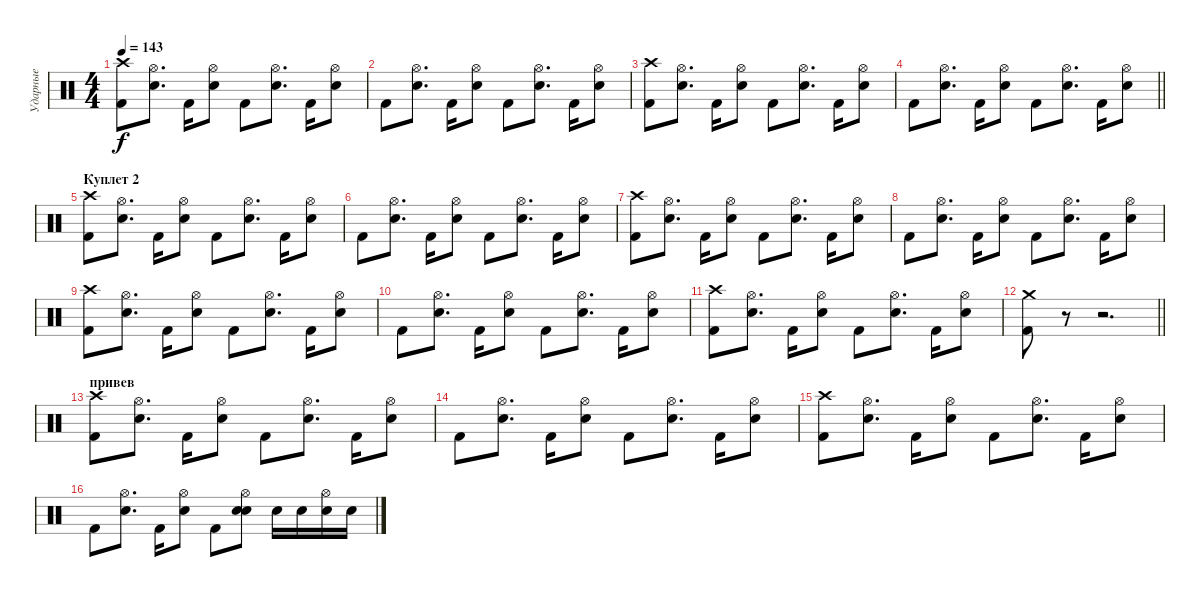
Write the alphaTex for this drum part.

\track ("Ударные" "Ударные") {instrument percussion}
\staff {score}
\articulation defaults
\ts (4 4)
\tempo 143
\clef neutral
\ks c
("Crash high (hit)" "Kick (hit) 2").8{dy f} ("Hi-Hat (open)" "Electric Snare (hit)").8{d} "Kick (hit) 2".16 ("Hi-Hat (open)" "Electric Snare (hit)").8 "Kick (hit) 2".8 ("Hi-Hat (open)" "Electric Snare (hit)").8{d} "Kick (hit) 2".16 ("Hi-Hat (open)" "Electric Snare (hit)").8 |
"Kick (hit) 2".8 ("Hi-Hat (open)" "Electric Snare (hit)").8{d} "Kick (hit) 2".16 ("Hi-Hat (open)" "Electric Snare (hit)").8 "Kick (hit) 2".8 ("Hi-Hat (open)" "Electric Snare (hit)").8{d} "Kick (hit) 2".16 ("Hi-Hat (open)" "Electric Snare (hit)").8 |
("Crash high (hit)" "Kick (hit) 2").8 ("Hi-Hat (open)" "Electric Snare (hit)").8{d} "Kick (hit) 2".16 ("Hi-Hat (open)" "Electric Snare (hit)").8 "Kick (hit) 2".8 ("Hi-Hat (open)" "Electric Snare (hit)").8{d} "Kick (hit) 2".16 ("Hi-Hat (open)" "Electric Snare (hit)").8 |
\barLineRight lightlight "Kick (hit) 2".8
("Hi-Hat (open)" "Electric Snare (hit)").8{d} "Kick (hit) 2".16 ("Hi-Hat (open)" "Electric Snare (hit)").8 "Kick (hit) 2".8 ("Hi-Hat (open)" "Electric Snare (hit)").8{d} "Kick (hit) 2".16 ("Hi-Hat (open)" "Electric Snare (hit)").8 |
\section ("" "Куплет 2 ")
("Crash high (hit)" "Kick (hit) 2").8 ("Hi-Hat (open)" "Electric Snare (hit)").8{d} "Kick (hit) 2".16 ("Hi-Hat (open)" "Electric Snare (hit)").8 "Kick (hit) 2".8 ("Hi-Hat (open)" "Electric Snare (hit)").8{d} "Kick (hit) 2".16 ("Hi-Hat (open)" "Electric Snare (hit)").8 |
"Kick (hit) 2".8 ("Hi-Hat (open)" "Electric Snare (hit)").8{d} "Kick (hit) 2".16 ("Hi-Hat (open)" "Electric Snare (hit)").8 "Kick (hit) 2".8 ("Hi-Hat (open)" "Electric Snare (hit)").8{d} "Kick (hit) 2".16 ("Hi-Hat (open)" "Electric Snare (hit)").8 |
("Crash high (hit)" "Kick (hit) 2").8 ("Hi-Hat (open)" "Electric Snare (hit)").8{d} "Kick (hit) 2".16 ("Hi-Hat (open)" "Electric Snare (hit)").8 "Kick (hit) 2".8 ("Hi-Hat (open)" "Electric Snare (hit)").8{d} "Kick (hit) 2".16 ("Hi-Hat (open)" "Electric Snare (hit)").8 |
"Kick (hit) 2".8 ("Hi-Hat (open)" "Electric Snare (hit)").8{d} "Kick (hit) 2".16 ("Hi-Hat (open)" "Electric Snare (hit)").8 "Kick (hit) 2".8 ("Hi-Hat (open)" "Electric Snare (hit)").8{d} "Kick (hit) 2".16 ("Hi-Hat (open)" "Electric Snare (hit)").8 |
("Crash high (hit)" "Kick (hit) 2").8 ("Hi-Hat (open)" "Electric Snare (hit)").8{d} "Kick (hit) 2".16 ("Hi-Hat (open)" "Electric Snare (hit)").8 "Kick (hit) 2".8 ("Hi-Hat (open)" "Electric Snare (hit)").8{d} "Kick (hit) 2".16 ("Hi-Hat (open)" "Electric Snare (hit)").8 |
"Kick (hit) 2".8 ("Hi-Hat (open)" "Electric Snare (hit)").8{d} "Kick (hit) 2".16 ("Hi-Hat (open)" "Electric Snare (hit)").8 "Kick (hit) 2".8 ("Hi-Hat (open)" "Electric Snare (hit)").8{d} "Kick (hit) 2".16 ("Hi-Hat (open)" "Electric Snare (hit)").8 |
("Crash high (hit)" "Kick (hit) 2").8 ("Hi-Hat (open)" "Electric Snare (hit)").8{d} "Kick (hit) 2".16 ("Hi-Hat (open)" "Electric Snare (hit)").8 "Kick (hit) 2".8 ("Hi-Hat (open)" "Electric Snare (hit)").8{d} "Kick (hit) 2".16 ("Hi-Hat (open)" "Electric Snare (hit)").8 |
\barLineRight lightlight
("Crash medium (hit)" "Kick (hit) 2").8 r.8 r.2{d} |
\section ("" "привев")
("Crash high (hit)" "Kick (hit) 2").8 ("Hi-Hat (open)" "Electric Snare (hit)").8{d} "Kick (hit) 2".16 ("Hi-Hat (open)" "Electric Snare (hit)").8 "Kick (hit) 2".8 ("Hi-Hat (open)" "Electric Snare (hit)").8{d} "Kick (hit) 2".16 ("Hi-Hat (open)" "Electric Snare (hit)").8 |
"Kick (hit) 2".8 ("Hi-Hat (open)" "Electric Snare (hit)").8{d} "Kick (hit) 2".16 ("Hi-Hat (open)" "Electric Snare (hit)").8 "Kick (hit) 2".8 ("Hi-Hat (open)" "Electric Snare (hit)").8{d} "Kick (hit) 2".16 ("Hi-Hat (open)" "Electric Snare (hit)").8 |
("Crash high (hit)" "Kick (hit) 2").8 ("Hi-Hat (open)" "Electric Snare (hit)").8{d} "Kick (hit) 2".16 ("Hi-Hat (open)" "Electric Snare (hit)").8 "Kick (hit) 2".8 ("Hi-Hat (open)" "Electric Snare (hit)").8{d} "Kick (hit) 2".16 ("Hi-Hat (open)" "Electric Snare (hit)").8 |
"Kick (hit) 2".8 ("Hi-Hat (open)" "Electric Snare (hit)").8{d} "Kick (hit) 2".16 ("Hi-Hat (open)" "Electric Snare (hit)").8 "Kick (hit) 2".8 ("Hi-Hat (open)" "Snare (hit) 2" "Electric Snare (hit)").8 "Snare (hit) 2".16 "Snare (hit) 2".16 ("Hi-Hat (open)" "Snare (hit) 2").16 "Snare (hit) 2".16
